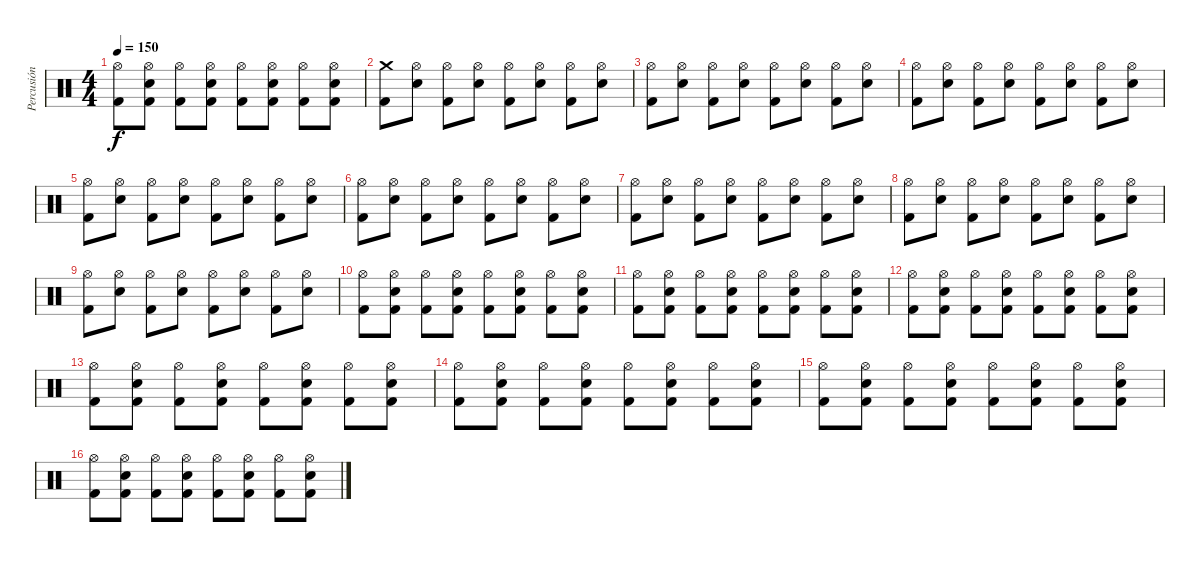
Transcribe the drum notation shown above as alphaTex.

\track ("Percusión" "Percusión") {instrument percussion}
\staff {score}
\articulation defaults
\ts (4 4)
\tempo 150
\clef neutral
\ks c
("Hi-Hat (open)" "Kick (hit) 2").8{dy f} ("Hi-Hat (open)" "Electric Snare (hit)" "Kick (hit) 2").8 ("Hi-Hat (open)" "Kick (hit) 2").8 ("Hi-Hat (open)" "Electric Snare (hit)" "Kick (hit) 2").8 ("Hi-Hat (open)" "Kick (hit) 2").8 ("Hi-Hat (open)" "Electric Snare (hit)" "Kick (hit) 2").8 ("Hi-Hat (open)" "Kick (hit) 2").8 ("Hi-Hat (open)" "Electric Snare (hit)" "Kick (hit) 2").8 |
("Crash medium (hit)" "Kick (hit) 2").8 ("Hi-Hat (open)" "Electric Snare (hit)").8 ("Hi-Hat (open)" "Kick (hit) 2").8 ("Hi-Hat (open)" "Electric Snare (hit)").8 ("Hi-Hat (open)" "Kick (hit) 2").8 ("Hi-Hat (open)" "Electric Snare (hit)").8 ("Hi-Hat (open)" "Kick (hit) 2").8 ("Hi-Hat (open)" "Electric Snare (hit)").8 |
("Hi-Hat (open)" "Kick (hit) 2").8 ("Hi-Hat (open)" "Electric Snare (hit)").8 ("Hi-Hat (open)" "Kick (hit) 2").8 ("Hi-Hat (open)" "Electric Snare (hit)").8 ("Hi-Hat (open)" "Kick (hit) 2").8 ("Hi-Hat (open)" "Electric Snare (hit)").8 ("Hi-Hat (open)" "Kick (hit) 2").8 ("Hi-Hat (open)" "Electric Snare (hit)").8 |
("Hi-Hat (open)" "Kick (hit) 2").8 ("Hi-Hat (open)" "Electric Snare (hit)").8 ("Hi-Hat (open)" "Kick (hit) 2").8 ("Hi-Hat (open)" "Electric Snare (hit)").8 ("Hi-Hat (open)" "Kick (hit) 2").8 ("Hi-Hat (open)" "Electric Snare (hit)").8 ("Hi-Hat (open)" "Kick (hit) 2").8 ("Hi-Hat (open)" "Electric Snare (hit)").8 |
("Hi-Hat (open)" "Kick (hit) 2").8 ("Hi-Hat (open)" "Electric Snare (hit)").8 ("Hi-Hat (open)" "Kick (hit) 2").8 ("Hi-Hat (open)" "Electric Snare (hit)").8 ("Hi-Hat (open)" "Kick (hit) 2").8 ("Hi-Hat (open)" "Electric Snare (hit)").8 ("Hi-Hat (open)" "Kick (hit) 2").8 ("Hi-Hat (open)" "Electric Snare (hit)").8 |
("Hi-Hat (open)" "Kick (hit) 2").8 ("Hi-Hat (open)" "Electric Snare (hit)").8 ("Hi-Hat (open)" "Kick (hit) 2").8 ("Hi-Hat (open)" "Electric Snare (hit)").8 ("Hi-Hat (open)" "Kick (hit) 2").8 ("Hi-Hat (open)" "Electric Snare (hit)").8 ("Hi-Hat (open)" "Kick (hit) 2").8 ("Hi-Hat (open)" "Electric Snare (hit)").8 |
("Hi-Hat (open)" "Kick (hit) 2").8 ("Hi-Hat (open)" "Electric Snare (hit)").8 ("Hi-Hat (open)" "Kick (hit) 2").8 ("Hi-Hat (open)" "Electric Snare (hit)").8 ("Hi-Hat (open)" "Kick (hit) 2").8 ("Hi-Hat (open)" "Electric Snare (hit)").8 ("Hi-Hat (open)" "Kick (hit) 2").8 ("Hi-Hat (open)" "Electric Snare (hit)").8 |
("Hi-Hat (open)" "Kick (hit) 2").8 ("Hi-Hat (open)" "Electric Snare (hit)").8 ("Hi-Hat (open)" "Kick (hit) 2").8 ("Hi-Hat (open)" "Electric Snare (hit)").8 ("Hi-Hat (open)" "Kick (hit) 2").8 ("Hi-Hat (open)" "Electric Snare (hit)").8 ("Hi-Hat (open)" "Kick (hit) 2").8 ("Hi-Hat (open)" "Electric Snare (hit)").8 |
("Hi-Hat (open)" "Kick (hit) 2").8 ("Hi-Hat (open)" "Electric Snare (hit)").8 ("Hi-Hat (open)" "Kick (hit) 2").8 ("Hi-Hat (open)" "Electric Snare (hit)").8 ("Hi-Hat (open)" "Kick (hit) 2").8 ("Hi-Hat (open)" "Electric Snare (hit)").8 ("Hi-Hat (open)" "Kick (hit) 2").8 ("Hi-Hat (open)" "Electric Snare (hit)").8 |
("Hi-Hat (open)" "Kick (hit) 2").8 ("Hi-Hat (open)" "Electric Snare (hit)" "Kick (hit) 2").8 ("Hi-Hat (open)" "Kick (hit) 2").8 ("Hi-Hat (open)" "Electric Snare (hit)" "Kick (hit) 2").8 ("Hi-Hat (open)" "Kick (hit) 2").8 ("Hi-Hat (open)" "Electric Snare (hit)" "Kick (hit) 2").8 ("Hi-Hat (open)" "Kick (hit) 2").8 ("Hi-Hat (open)" "Electric Snare (hit)" "Kick (hit) 2").8 |
("Hi-Hat (open)" "Kick (hit) 2").8 ("Hi-Hat (open)" "Electric Snare (hit)" "Kick (hit) 2").8 ("Hi-Hat (open)" "Kick (hit) 2").8 ("Hi-Hat (open)" "Electric Snare (hit)" "Kick (hit) 2").8 ("Hi-Hat (open)" "Kick (hit) 2").8 ("Hi-Hat (open)" "Electric Snare (hit)" "Kick (hit) 2").8 ("Hi-Hat (open)" "Kick (hit) 2").8 ("Hi-Hat (open)" "Electric Snare (hit)" "Kick (hit) 2").8 |
("Hi-Hat (open)" "Kick (hit) 2").8 ("Hi-Hat (open)" "Electric Snare (hit)" "Kick (hit) 2").8 ("Hi-Hat (open)" "Kick (hit) 2").8 ("Hi-Hat (open)" "Electric Snare (hit)" "Kick (hit) 2").8 ("Hi-Hat (open)" "Kick (hit) 2").8 ("Hi-Hat (open)" "Electric Snare (hit)" "Kick (hit) 2").8 ("Hi-Hat (open)" "Kick (hit) 2").8 ("Hi-Hat (open)" "Electric Snare (hit)" "Kick (hit) 2").8 |
("Hi-Hat (open)" "Kick (hit) 2").8 ("Hi-Hat (open)" "Electric Snare (hit)" "Kick (hit) 2").8 ("Hi-Hat (open)" "Kick (hit) 2").8 ("Hi-Hat (open)" "Electric Snare (hit)" "Kick (hit) 2").8 ("Hi-Hat (open)" "Kick (hit) 2").8 ("Hi-Hat (open)" "Electric Snare (hit)" "Kick (hit) 2").8 ("Hi-Hat (open)" "Kick (hit) 2").8 ("Hi-Hat (open)" "Electric Snare (hit)" "Kick (hit) 2").8 |
("Hi-Hat (open)" "Kick (hit) 2").8 ("Hi-Hat (open)" "Electric Snare (hit)" "Kick (hit) 2").8 ("Hi-Hat (open)" "Kick (hit) 2").8 ("Hi-Hat (open)" "Electric Snare (hit)" "Kick (hit) 2").8 ("Hi-Hat (open)" "Kick (hit) 2").8 ("Hi-Hat (open)" "Electric Snare (hit)" "Kick (hit) 2").8 ("Hi-Hat (open)" "Kick (hit) 2").8 ("Hi-Hat (open)" "Electric Snare (hit)" "Kick (hit) 2").8 |
("Hi-Hat (open)" "Kick (hit) 2").8 ("Hi-Hat (open)" "Electric Snare (hit)" "Kick (hit) 2").8 ("Hi-Hat (open)" "Kick (hit) 2").8 ("Hi-Hat (open)" "Electric Snare (hit)" "Kick (hit) 2").8 ("Hi-Hat (open)" "Kick (hit) 2").8 ("Hi-Hat (open)" "Electric Snare (hit)" "Kick (hit) 2").8 ("Hi-Hat (open)" "Kick (hit) 2").8 ("Hi-Hat (open)" "Electric Snare (hit)" "Kick (hit) 2").8 |
("Hi-Hat (open)" "Kick (hit) 2").8 ("Hi-Hat (open)" "Electric Snare (hit)" "Kick (hit) 2").8 ("Hi-Hat (open)" "Kick (hit) 2").8 ("Hi-Hat (open)" "Electric Snare (hit)" "Kick (hit) 2").8 ("Hi-Hat (open)" "Kick (hit) 2").8 ("Hi-Hat (open)" "Electric Snare (hit)" "Kick (hit) 2").8 ("Hi-Hat (open)" "Kick (hit) 2").8 ("Hi-Hat (open)" "Electric Snare (hit)" "Kick (hit) 2").8
